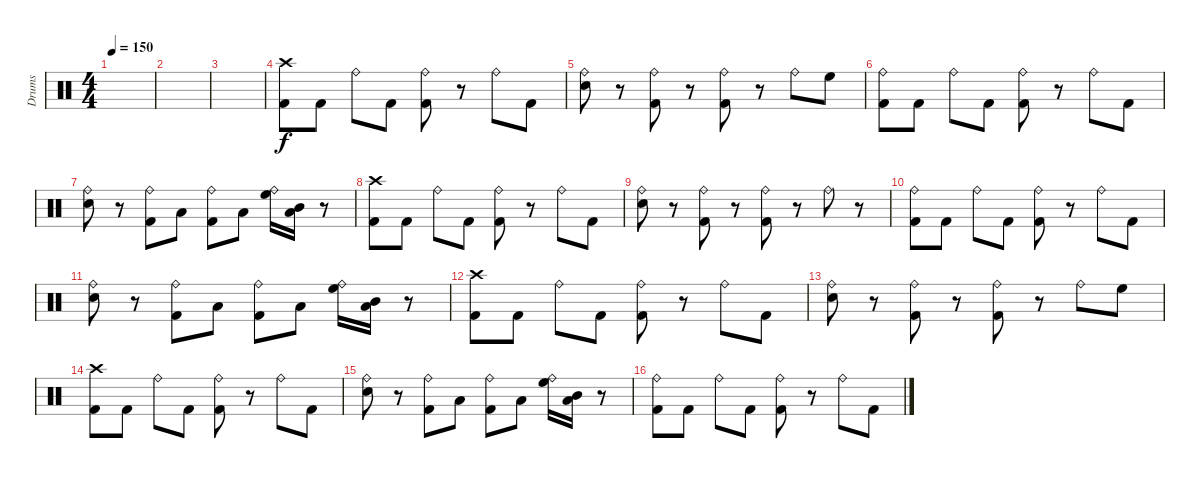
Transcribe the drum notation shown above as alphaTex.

\track ("Drums" "Drums") {instrument percussion}
\staff {score}
\articulation defaults
\ts (4 4)
\tempo 150
\clef neutral
\ks c
|
|
|
("Crash high (hit)" "Kick (hit) 2").8 "Kick (hit) 2".8 "Ride (bell)".8 "Kick (hit) 2".8 ("Ride (bell)" "Kick (hit) 2").8 r.8 "Ride (bell)".8 "Kick (hit) 2".8 |
("Ride (bell)" "Electric Snare (hit)").8 r.8 ("Ride (bell)" "Kick (hit) 2").8 r.8 ("Ride (bell)" "Kick (hit) 2").8 r.8 "Ride (bell)".8 "High Floor Tom (hit)".8 |
("Ride (bell)" "Kick (hit) 2").8 "Kick (hit) 2".8 "Ride (bell)".8 "Kick (hit) 2".8 ("Ride (bell)" "Kick (hit) 2").8 r.8 "Ride (bell)".8 "Kick (hit) 2".8 |
("Ride (bell)" "Electric Snare (hit)").8 r.8 ("Ride (bell)" "Kick (hit) 2").8 "Low Tom (hit)".8 ("Ride (bell)" "Kick (hit) 2").8 "Low Floor Tom (hit)".8 ("Ride (bell)" "High Floor Tom (hit)").16 ("Mid Tom (hit)" "Low Tom (hit)").16 r.8 |
("Crash high (hit)" "Kick (hit) 2").8 "Kick (hit) 2".8 "Ride (bell)".8 "Kick (hit) 2".8 ("Ride (bell)" "Kick (hit) 2").8 r.8 "Ride (bell)".8 "Kick (hit) 2".8 |
("Ride (bell)" "Electric Snare (hit)").8 r.8 ("Ride (bell)" "Kick (hit) 2").8 r.8 ("Ride (bell)" "Kick (hit) 2").8 r.8 "Ride (bell)".8 r.8 |
("Ride (bell)" "Kick (hit) 2").8 "Kick (hit) 2".8 "Ride (bell)".8 "Kick (hit) 2".8 ("Ride (bell)" "Kick (hit) 2").8 r.8 "Ride (bell)".8 "Kick (hit) 2".8 |
("Ride (bell)" "Electric Snare (hit)").8 r.8 ("Ride (bell)" "Kick (hit) 2").8 "Low Tom (hit)".8 ("Ride (bell)" "Kick (hit) 2").8 "Low Floor Tom (hit)".8 ("Ride (bell)" "High Floor Tom (hit)").16 ("Mid Tom (hit)" "Low Tom (hit)").16 r.8 |
("Crash high (hit)" "Kick (hit) 2").8 "Kick (hit) 2".8 "Ride (bell)".8 "Kick (hit) 2".8 ("Ride (bell)" "Kick (hit) 2").8 r.8 "Ride (bell)".8 "Kick (hit) 2".8 |
("Ride (bell)" "Electric Snare (hit)").8 r.8 ("Ride (bell)" "Kick (hit) 2").8 r.8 ("Ride (bell)" "Kick (hit) 2").8 r.8 "Ride (bell)".8 "High Floor Tom (hit)".8 |
("Crash high (hit)" "Kick (hit) 2").8 "Kick (hit) 2".8 "Ride (bell)".8 "Kick (hit) 2".8 ("Ride (bell)" "Kick (hit) 2").8 r.8 "Ride (bell)".8 "Kick (hit) 2".8 |
("Ride (bell)" "Electric Snare (hit)").8 r.8 ("Ride (bell)" "Kick (hit) 2").8 "Low Tom (hit)".8 ("Ride (bell)" "Kick (hit) 2").8 "Low Floor Tom (hit)".8 ("Ride (bell)" "High Floor Tom (hit)").16 ("Mid Tom (hit)" "Low Tom (hit)").16 r.8 |
("Ride (bell)" "Kick (hit) 2").8 "Kick (hit) 2".8 "Ride (bell)".8 "Kick (hit) 2".8 ("Ride (bell)" "Kick (hit) 2").8 r.8 "Ride (bell)".8 "Kick (hit) 2".8
